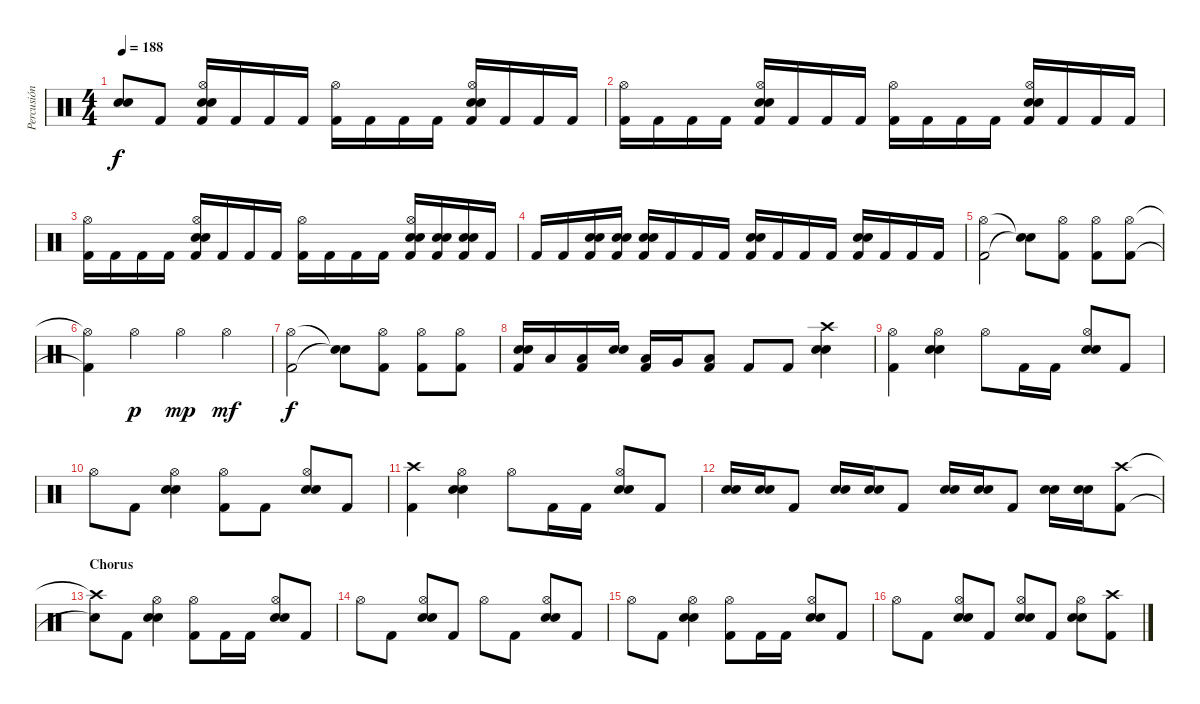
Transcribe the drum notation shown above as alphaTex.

\track ("Percusión" "Percusión") {instrument percussion}
\staff {score}
\articulation defaults
\ts (4 4)
\tempo 188
\clef neutral
\ks c
("Snare (hit)"{t} "Snare (hit)"{t}).8{dy f} "Kick (hit) 2".8 ("Hi-Hat (open)" "Electric Snare (hit)" "Snare (hit) 2" "Kick (hit) 2").16 "Kick (hit) 2".16 "Kick (hit) 2".16 "Kick (hit) 2".16 ("Hi-Hat (open)" "Kick (hit) 2").16 "Kick (hit) 2".16 "Kick (hit) 2".16 "Kick (hit) 2".16 ("Hi-Hat (open)" "Electric Snare (hit)" "Snare (hit) 2" "Kick (hit) 2").16 "Kick (hit) 2".16 "Kick (hit) 2".16 "Kick (hit) 2".16 |
("Hi-Hat (open)" "Kick (hit) 2").16 "Kick (hit) 2".16 "Kick (hit) 2".16 "Kick (hit) 2".16 ("Hi-Hat (open)" "Electric Snare (hit)" "Snare (hit) 2" "Kick (hit) 2").16 "Kick (hit) 2".16 "Kick (hit) 2".16 "Kick (hit) 2".16 ("Hi-Hat (open)" "Kick (hit) 2").16 "Kick (hit) 2".16 "Kick (hit) 2".16 "Kick (hit) 2".16 ("Hi-Hat (open)" "Electric Snare (hit)" "Snare (hit) 2" "Kick (hit) 2").16 "Kick (hit) 2".16 "Kick (hit) 2".16 "Kick (hit) 2".16 |
("Hi-Hat (open)" "Kick (hit) 2").16 "Kick (hit) 2".16 "Kick (hit) 2".16 "Kick (hit) 2".16 ("Hi-Hat (open)" "Electric Snare (hit)" "Snare (hit) 2" "Kick (hit) 2").16 "Kick (hit) 2".16 "Kick (hit) 2".16 "Kick (hit) 2".16 ("Hi-Hat (open)" "Kick (hit) 2").16 "Kick (hit) 2".16 "Kick (hit) 2".16 "Kick (hit) 2".16 ("Hi-Hat (open)" "Electric Snare (hit)" "Snare (hit) 2" "Kick (hit) 2").16 ("Electric Snare (hit)" "Snare (hit) 2" "Kick (hit) 2").16 ("Electric Snare (hit)" "Snare (hit) 2" "Kick (hit) 2").16 "Kick (hit) 2".16 |
"Kick (hit) 2".16 "Kick (hit) 2".16 ("Electric Snare (hit)" "Snare (hit) 2" "Kick (hit) 2").16 ("Electric Snare (hit)" "Snare (hit) 2" "Kick (hit) 2").16 ("Electric Snare (hit)" "Snare (hit) 2" "Kick (hit) 2").16 "Kick (hit) 2".16 "Kick (hit) 2".16 "Kick (hit) 2".16 ("Electric Snare (hit)" "Snare (hit) 2" "Kick (hit) 2").16 "Kick (hit) 2".16 "Kick (hit) 2".16 "Kick (hit) 2".16 ("Electric Snare (hit)" "Snare (hit) 2" "Kick (hit) 2").16 "Kick (hit) 2".16 "Kick (hit) 2".16 "Kick (hit) 2".16 |
("Hi-Hat (open)" "Kick (hit) 2").2 ("Snare (hit)"{t} "Snare (hit)"{t}).8 ("Hi-Hat (open)" "Kick (hit) 2").8 ("Hi-Hat (open)" "Kick (hit) 2").8 ("Hi-Hat (open)" "Kick (hit) 2").8 |
("Hi-Hat (open)"{t} "Kick (hit) 2"{t}).4 "Hi-Hat (open)".4{dy p} "Hi-Hat (open)".4{dy mp} "Hi-Hat (open)".4{dy mf} |
("Hi-Hat (open)" "Kick (hit) 2").2{dy f} ("Snare (hit)"{t} "Snare (hit)"{t}).8 ("Hi-Hat (open)" "Kick (hit) 2").8 ("Hi-Hat (open)" "Kick (hit) 2").8 ("Hi-Hat (open)" "Kick (hit) 2").8 |
("Electric Snare (hit)" "Snare (hit) 2" "Kick (hit) 2").16 "Low Tom (hit)".16 ("Low Floor Tom (hit)" "Kick (hit) 2").16 ("Electric Snare (hit)" "Snare (hit) 2").16 ("Low Tom (hit)" "Kick (hit) 2").16 "Very Low Tom (hit)".16 ("Low Floor Tom (hit)" "Kick (hit) 2").8 "Kick (hit) 2".8 "Kick (hit) 2".8 ("Crash high (hit)" "Electric Snare (hit)" "Snare (hit) 2").4 |
("Hi-Hat (open)" "Kick (hit) 2").4 ("Hi-Hat (open)" "Electric Snare (hit)" "Snare (hit) 2").4 "Hi-Hat (open)".8 "Kick (hit) 2".16 "Kick (hit) 2".16 ("Hi-Hat (open)" "Electric Snare (hit)" "Snare (hit) 2").8 "Kick (hit) 2".8 |
"Hi-Hat (open)".8 "Kick (hit) 2".8 ("Hi-Hat (open)" "Electric Snare (hit)" "Snare (hit) 2").4 ("Hi-Hat (open)" "Kick (hit) 2").8 "Kick (hit) 2".8 ("Hi-Hat (open)" "Electric Snare (hit)" "Snare (hit) 2").8 "Kick (hit) 2".8 |
("Crash high (hit)" "Kick (hit) 2").4 ("Hi-Hat (open)" "Electric Snare (hit)" "Snare (hit) 2").4 "Hi-Hat (open)".8 "Kick (hit) 2".16 "Kick (hit) 2".16 ("Hi-Hat (open)" "Electric Snare (hit)" "Snare (hit) 2").8 "Kick (hit) 2".8 |
("Electric Snare (hit)" "Snare (hit) 2").16 ("Electric Snare (hit)" "Snare (hit) 2").16 "Kick (hit) 2".8 ("Electric Snare (hit)" "Snare (hit) 2").16 ("Electric Snare (hit)" "Snare (hit) 2").16 "Kick (hit) 2".8 ("Electric Snare (hit)" "Snare (hit) 2").16 ("Electric Snare (hit)" "Snare (hit) 2").16 "Kick (hit) 2".8 ("Electric Snare (hit)" "Snare (hit) 2").16 ("Electric Snare (hit)" "Snare (hit) 2").16 ("Crash high (hit)" "Kick (hit) 2").8 |
\section ("" "Chorus")
("Crash high (hit)"{t} "Snare (hit)"{t}).8 "Kick (hit) 2".8 ("Hi-Hat (open)" "Electric Snare (hit)" "Snare (hit) 2").4 ("Hi-Hat (open)" "Kick (hit) 2").8 "Kick (hit) 2".16 "Kick (hit) 2".16 ("Hi-Hat (open)" "Electric Snare (hit)" "Snare (hit) 2").8 "Kick (hit) 2".8 |
"Hi-Hat (open)".8 "Kick (hit) 2".8 ("Hi-Hat (open)" "Electric Snare (hit)" "Snare (hit) 2").8 "Kick (hit) 2".8 "Hi-Hat (open)".8 "Kick (hit) 2".8 ("Hi-Hat (open)" "Electric Snare (hit)" "Snare (hit) 2").8 "Kick (hit) 2".8 |
"Hi-Hat (open)".8 "Kick (hit) 2".8 ("Hi-Hat (open)" "Electric Snare (hit)" "Snare (hit) 2").4 ("Hi-Hat (open)" "Kick (hit) 2").8 "Kick (hit) 2".16 "Kick (hit) 2".16 ("Hi-Hat (open)" "Electric Snare (hit)" "Snare (hit) 2").8 "Kick (hit) 2".8 |
"Hi-Hat (open)".8 "Kick (hit) 2".8 ("Hi-Hat (open)" "Electric Snare (hit)" "Snare (hit) 2").8 "Kick (hit) 2".8 ("Hi-Hat (open)" "Electric Snare (hit)" "Snare (hit) 2").8 "Kick (hit) 2".8 ("Hi-Hat (open)" "Electric Snare (hit)" "Snare (hit) 2").8 ("Crash high (hit)" "Kick (hit) 2").8
